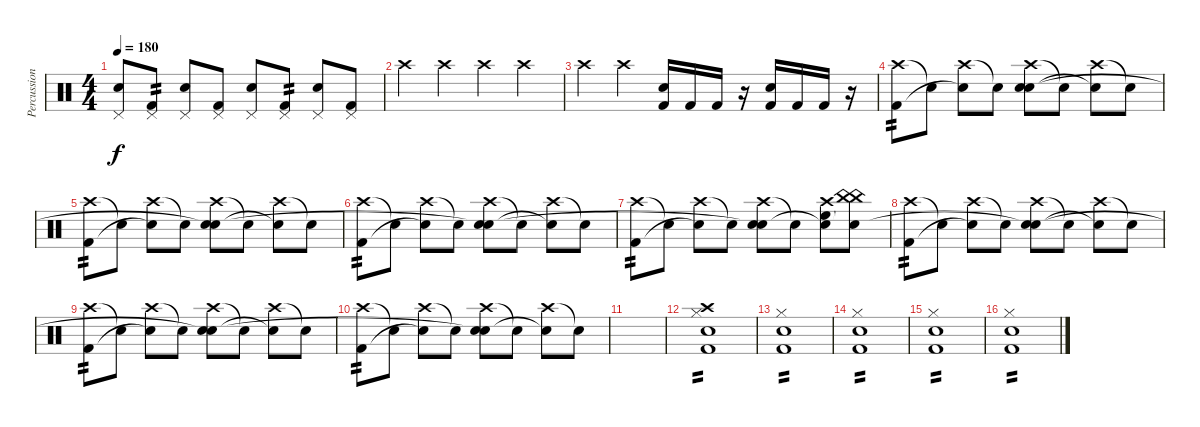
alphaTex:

\track ("Percussion" "Percussion") {instrument percussion}
\staff {score}
\articulation defaults
\ts (4 4)
\tempo 180
\clef neutral
\ks c
("Pedal Hi-Hat (hit)" "Electric Snare (hit)").8{dy f} ("Pedal Hi-Hat (hit)" "Kick (hit) 2").8{tp 2} ("Pedal Hi-Hat (hit)" "Electric Snare (hit)").8 ("Pedal Hi-Hat (hit)" "Kick (hit) 2").8 ("Pedal Hi-Hat (hit)" "Electric Snare (hit)").8 ("Pedal Hi-Hat (hit)" "Kick (hit) 2").8{tp 2} ("Pedal Hi-Hat (hit)" "Electric Snare (hit)").8 ("Pedal Hi-Hat (hit)" "Kick (hit) 2").8 |
"Crash high (hit)".4 "Crash high (hit)".4 "Crash high (hit)".4 "Crash high (hit)".4 |
"Crash high (hit)".4 "Crash high (hit)".4 ("Electric Snare (hit)" "Kick (hit) 2").16 "Kick (hit) 2".16 "Kick (hit) 2".16 r.16 ("Electric Snare (hit)" "Kick (hit) 2").16 "Kick (hit) 2".16 "Kick (hit) 2".16 r.16 |
("Crash high (hit)" "Kick (hit) 2").8{tp 2} "Snare (hit)"{t}.8 ("Crash high (hit)" "Snare (hit)"{t}).8 "Snare (hit)"{t}.8 ("Crash high (hit)" "Electric Snare (hit)" "Snare (hit)").8 "Snare (hit)"{t}.8 ("Crash high (hit)" "Snare (hit)"{t}).8 "Snare (hit)"{t}.8 |
("Crash high (hit)" "Kick (hit) 2").8{tp 2} "Snare (hit)"{t}.8 ("Crash high (hit)" "Snare (hit)"{t}).8 "Snare (hit)"{t}.8 ("Crash high (hit)" "Electric Snare (hit)" "Snare (hit)"{t}).8 "Snare (hit)"{t}.8 ("Crash high (hit)" "Snare (hit)"{t}).8 "Snare (hit)"{t}.8 |
("Crash high (hit)" "Kick (hit) 2").8{tp 2} "Snare (hit)"{t}.8 ("Crash high (hit)" "Snare (hit)"{t}).8 "Snare (hit)"{t}.8 ("Crash high (hit)" "Electric Snare (hit)" "Snare (hit)"{t}).8 "Snare (hit)"{t}.8 ("Crash high (hit)" "Snare (hit)"{t}).8 "Snare (hit)"{t}.8 |
("Crash high (hit)" "Kick (hit) 2").8{tp 2} "Snare (hit)"{t}.8 ("Crash high (hit)" "Snare (hit)"{t}).8 "Snare (hit)"{t}.8 ("Crash high (hit)" "Electric Snare (hit)" "Snare (hit)"{t}).8 "Snare (hit)"{t}.8 ("Crash high (hit)" "High Floor Tom (hit)" "Snare (hit)"{t}).8 ("China (hit)" "China (hit)" "Snare (hit)"{t}).8 |
("Crash high (hit)" "Kick (hit) 2").8{tp 2} "Snare (hit)"{t}.8 ("Crash high (hit)" "Snare (hit)"{t}).8 "Snare (hit)"{t}.8 ("Crash high (hit)" "Electric Snare (hit)" "Snare (hit)"{t}).8 "Snare (hit)"{t}.8 ("Crash high (hit)" "Snare (hit)"{t}).8 "Snare (hit)"{t}.8 |
("Crash high (hit)" "Kick (hit) 2").8{tp 2} "Snare (hit)"{t}.8 ("Crash high (hit)" "Snare (hit)"{t}).8 "Snare (hit)"{t}.8 ("Crash high (hit)" "Electric Snare (hit)" "Snare (hit)"{t}).8 "Snare (hit)"{t}.8 ("Crash high (hit)" "Snare (hit)"{t}).8 "Snare (hit)"{t}.8 |
("Crash high (hit)" "Kick (hit) 2").8{tp 2} "Snare (hit)"{t}.8 ("Crash high (hit)" "Snare (hit)"{t}).8 "Snare (hit)"{t}.8 ("Crash high (hit)" "Electric Snare (hit)" "Snare (hit)"{t}).8 "Snare (hit)"{t}.8 ("Crash high (hit)" "Snare (hit)"{t}).8 "Snare (hit)"{t}.8 |
|
("Crash high (hit)" "Electric Snare (hit)" "Hi-Hat (closed)" "Kick (hit) 2").1{tp 2} |
("Electric Snare (hit)" "Hi-Hat (closed)" "Kick (hit) 2").1{tp 2} |
("Electric Snare (hit)" "Hi-Hat (closed)" "Kick (hit) 2").1{tp 2} |
("Electric Snare (hit)" "Hi-Hat (closed)" "Kick (hit) 2").1{tp 2} |
("Electric Snare (hit)" "Hi-Hat (closed)" "Kick (hit) 2").1{tp 2}
